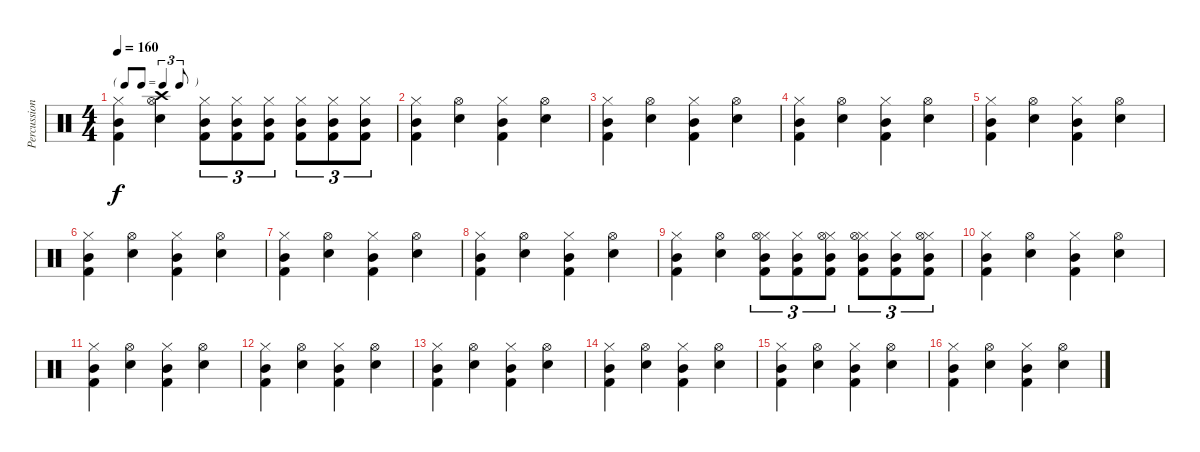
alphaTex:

\track ("Percussion" "Percussion") {instrument percussion}
\staff {score}
\articulation defaults
\ts (4 4)
\tf triplet8th
\tempo 160
\clef neutral
\ks c
("Hi-Hat (closed)" "Kick (hit) 2" "Mid Tom (hit)").4{dy f} ("Hi-Hat (open)" "Electric Snare (hit)" "Crash high (hit)").4 ("Hi-Hat (closed)" "Kick (hit) 2" "Mid Tom (hit)").8{tu (3 2)} ("Hi-Hat (closed)" "Kick (hit) 2" "Mid Tom (hit)").8{tu (3 2)} ("Hi-Hat (closed)" "Kick (hit) 2" "Mid Tom (hit)").8{tu (3 2)} ("Hi-Hat (closed)" "Kick (hit) 2" "Mid Tom (hit)").8{tu (3 2)} ("Hi-Hat (closed)" "Kick (hit) 2" "Mid Tom (hit)").8{tu (3 2)} ("Hi-Hat (closed)" "Kick (hit) 2" "Mid Tom (hit)").8{tu (3 2)} |
("Hi-Hat (closed)" "Kick (hit) 2" "Mid Tom (hit)").4 ("Hi-Hat (open)" "Electric Snare (hit)").4 ("Hi-Hat (closed)" "Kick (hit) 2" "Mid Tom (hit)").4 ("Hi-Hat (open)" "Electric Snare (hit)").4 |
("Hi-Hat (closed)" "Kick (hit) 2" "Mid Tom (hit)").4 ("Hi-Hat (open)" "Electric Snare (hit)").4 ("Hi-Hat (closed)" "Kick (hit) 2" "Mid Tom (hit)").4 ("Hi-Hat (open)" "Electric Snare (hit)").4 |
("Hi-Hat (closed)" "Kick (hit) 2" "Mid Tom (hit)").4 ("Hi-Hat (open)" "Electric Snare (hit)").4 ("Hi-Hat (closed)" "Kick (hit) 2" "Mid Tom (hit)").4 ("Hi-Hat (open)" "Electric Snare (hit)").4 |
("Hi-Hat (closed)" "Kick (hit) 2" "Mid Tom (hit)").4 ("Hi-Hat (open)" "Electric Snare (hit)").4 ("Hi-Hat (closed)" "Kick (hit) 2" "Mid Tom (hit)").4 ("Hi-Hat (open)" "Electric Snare (hit)").4 |
("Hi-Hat (closed)" "Kick (hit) 2" "Mid Tom (hit)").4 ("Hi-Hat (open)" "Electric Snare (hit)").4 ("Hi-Hat (closed)" "Kick (hit) 2" "Mid Tom (hit)").4 ("Hi-Hat (open)" "Electric Snare (hit)").4 |
("Hi-Hat (closed)" "Kick (hit) 2" "Mid Tom (hit)").4 ("Hi-Hat (open)" "Electric Snare (hit)").4 ("Hi-Hat (closed)" "Kick (hit) 2" "Mid Tom (hit)").4 ("Hi-Hat (open)" "Electric Snare (hit)").4 |
("Hi-Hat (closed)" "Kick (hit) 2" "Mid Tom (hit)").4 ("Hi-Hat (open)" "Electric Snare (hit)").4 ("Hi-Hat (closed)" "Kick (hit) 2" "Mid Tom (hit)").4 ("Hi-Hat (open)" "Electric Snare (hit)").4 |
("Hi-Hat (closed)" "Kick (hit) 2" "Mid Tom (hit)").4 ("Hi-Hat (open)" "Electric Snare (hit)").4 ("Hi-Hat (closed)" "Kick (hit) 2" "Mid Tom (hit)" "Hi-Hat (open)").8{tu (3 2)} ("Hi-Hat (closed)" "Kick (hit) 2" "Mid Tom (hit)").8{tu (3 2)} ("Hi-Hat (closed)" "Kick (hit) 2" "Mid Tom (hit)" "Hi-Hat (open)").8{tu (3 2)} ("Hi-Hat (closed)" "Kick (hit) 2" "Mid Tom (hit)" "Hi-Hat (open)").8{tu (3 2)} ("Hi-Hat (closed)" "Kick (hit) 2" "Mid Tom (hit)").8{tu (3 2)} ("Hi-Hat (closed)" "Kick (hit) 2" "Mid Tom (hit)" "Hi-Hat (open)").8{tu (3 2)} |
("Hi-Hat (closed)" "Kick (hit) 2" "Mid Tom (hit)").4 ("Hi-Hat (open)" "Electric Snare (hit)").4 ("Hi-Hat (closed)" "Kick (hit) 2" "Mid Tom (hit)").4 ("Hi-Hat (open)" "Electric Snare (hit)").4 |
("Hi-Hat (closed)" "Kick (hit) 2" "Mid Tom (hit)").4 ("Hi-Hat (open)" "Electric Snare (hit)").4 ("Hi-Hat (closed)" "Kick (hit) 2" "Mid Tom (hit)").4 ("Hi-Hat (open)" "Electric Snare (hit)").4 |
("Hi-Hat (closed)" "Kick (hit) 2" "Mid Tom (hit)").4 ("Hi-Hat (open)" "Electric Snare (hit)").4 ("Hi-Hat (closed)" "Kick (hit) 2" "Mid Tom (hit)").4 ("Hi-Hat (open)" "Electric Snare (hit)").4 |
("Hi-Hat (closed)" "Kick (hit) 2" "Mid Tom (hit)").4 ("Hi-Hat (open)" "Electric Snare (hit)").4 ("Hi-Hat (closed)" "Kick (hit) 2" "Mid Tom (hit)").4 ("Hi-Hat (open)" "Electric Snare (hit)").4 |
("Hi-Hat (closed)" "Kick (hit) 2" "Mid Tom (hit)").4 ("Hi-Hat (open)" "Electric Snare (hit)").4 ("Hi-Hat (closed)" "Kick (hit) 2" "Mid Tom (hit)").4 ("Hi-Hat (open)" "Electric Snare (hit)").4 |
("Hi-Hat (closed)" "Kick (hit) 2" "Mid Tom (hit)").4 ("Hi-Hat (open)" "Electric Snare (hit)").4 ("Hi-Hat (closed)" "Kick (hit) 2" "Mid Tom (hit)").4 ("Hi-Hat (open)" "Electric Snare (hit)").4 |
("Hi-Hat (closed)" "Kick (hit) 2" "Mid Tom (hit)").4 ("Hi-Hat (open)" "Electric Snare (hit)").4 ("Hi-Hat (closed)" "Kick (hit) 2" "Mid Tom (hit)").4 ("Hi-Hat (open)" "Electric Snare (hit)").4
